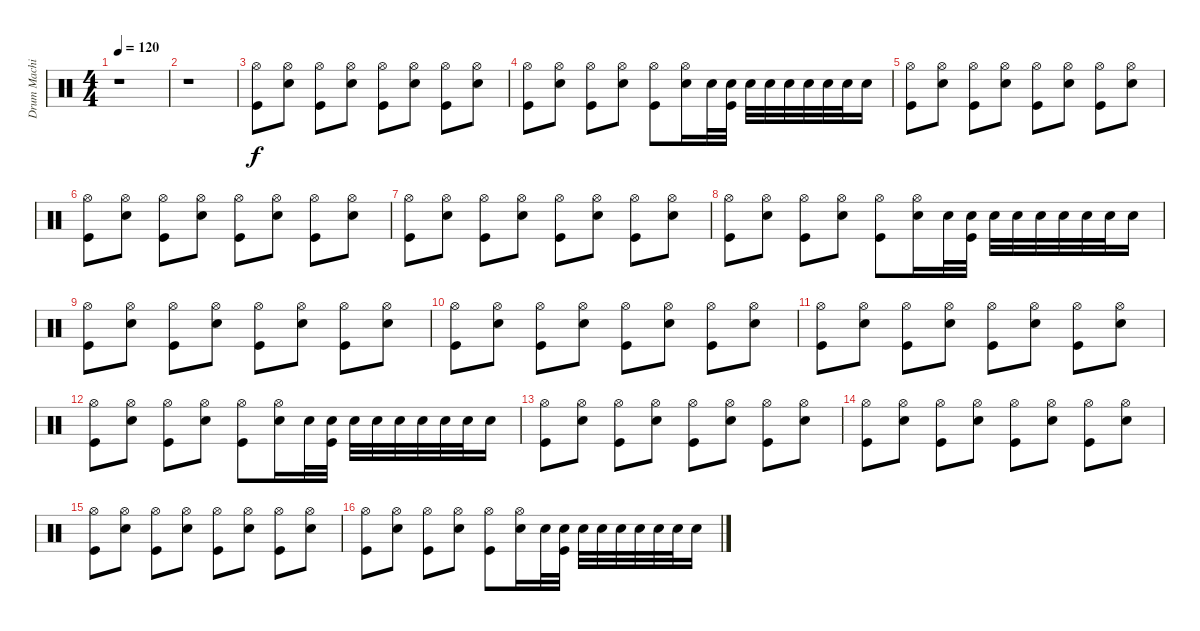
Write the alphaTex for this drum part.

\track ("Drum Machine" "Drum Machi") {instrument percussion}
\staff {score}
\articulation defaults
\ts (4 4)
\tempo 120
\clef neutral
\ks c
r.1{dy f} |
r.1 |
("Hi-Hat (open)" "Kick (hit)").8 ("Hi-Hat (open)" "Electric Snare (hit)").8 ("Hi-Hat (open)" "Kick (hit)").8 ("Hi-Hat (open)" "Electric Snare (hit)").8 ("Hi-Hat (open)" "Kick (hit)").8 ("Hi-Hat (open)" "Electric Snare (hit)").8 ("Hi-Hat (open)" "Kick (hit)").8 ("Hi-Hat (open)" "Electric Snare (hit)").8 |
("Hi-Hat (open)" "Kick (hit)").8 ("Hi-Hat (open)" "Electric Snare (hit)").8 ("Hi-Hat (open)" "Kick (hit)").8 ("Hi-Hat (open)" "Electric Snare (hit)").8 ("Hi-Hat (open)" "Kick (hit)").8 ("Hi-Hat (open)" "Electric Snare (hit)").16 "Electric Snare (hit)".32 ("Electric Snare (hit)" "Kick (hit)").32 "Electric Snare (hit)".32 "Electric Snare (hit)".32 "Electric Snare (hit)".32 "Electric Snare (hit)".32 "Electric Snare (hit)".32 "Electric Snare (hit)".32 "Electric Snare (hit)".16 |
("Hi-Hat (open)" "Kick (hit)").8 ("Hi-Hat (open)" "Electric Snare (hit)").8 ("Hi-Hat (open)" "Kick (hit)").8 ("Hi-Hat (open)" "Electric Snare (hit)").8 ("Hi-Hat (open)" "Kick (hit)").8 ("Hi-Hat (open)" "Electric Snare (hit)").8 ("Hi-Hat (open)" "Kick (hit)").8 ("Hi-Hat (open)" "Electric Snare (hit)").8 |
("Hi-Hat (open)" "Kick (hit)").8 ("Hi-Hat (open)" "Electric Snare (hit)").8 ("Hi-Hat (open)" "Kick (hit)").8 ("Hi-Hat (open)" "Electric Snare (hit)").8 ("Hi-Hat (open)" "Kick (hit)").8 ("Hi-Hat (open)" "Electric Snare (hit)").8 ("Hi-Hat (open)" "Kick (hit)").8 ("Hi-Hat (open)" "Electric Snare (hit)").8 |
("Hi-Hat (open)" "Kick (hit)").8 ("Hi-Hat (open)" "Electric Snare (hit)").8 ("Hi-Hat (open)" "Kick (hit)").8 ("Hi-Hat (open)" "Electric Snare (hit)").8 ("Hi-Hat (open)" "Kick (hit)").8 ("Hi-Hat (open)" "Electric Snare (hit)").8 ("Hi-Hat (open)" "Kick (hit)").8 ("Hi-Hat (open)" "Electric Snare (hit)").8 |
("Hi-Hat (open)" "Kick (hit)").8 ("Hi-Hat (open)" "Electric Snare (hit)").8 ("Hi-Hat (open)" "Kick (hit)").8 ("Hi-Hat (open)" "Electric Snare (hit)").8 ("Hi-Hat (open)" "Kick (hit)").8 ("Hi-Hat (open)" "Electric Snare (hit)").16 "Electric Snare (hit)".32 ("Electric Snare (hit)" "Kick (hit)").32 "Electric Snare (hit)".32 "Electric Snare (hit)".32 "Electric Snare (hit)".32 "Electric Snare (hit)".32 "Electric Snare (hit)".32 "Electric Snare (hit)".32 "Electric Snare (hit)".16 |
("Hi-Hat (open)" "Kick (hit)").8 ("Hi-Hat (open)" "Electric Snare (hit)").8 ("Hi-Hat (open)" "Kick (hit)").8 ("Hi-Hat (open)" "Electric Snare (hit)").8 ("Hi-Hat (open)" "Kick (hit)").8 ("Hi-Hat (open)" "Electric Snare (hit)").8 ("Hi-Hat (open)" "Kick (hit)").8 ("Hi-Hat (open)" "Electric Snare (hit)").8 |
("Hi-Hat (open)" "Kick (hit)").8 ("Hi-Hat (open)" "Electric Snare (hit)").8 ("Hi-Hat (open)" "Kick (hit)").8 ("Hi-Hat (open)" "Electric Snare (hit)").8 ("Hi-Hat (open)" "Kick (hit)").8 ("Hi-Hat (open)" "Electric Snare (hit)").8 ("Hi-Hat (open)" "Kick (hit)").8 ("Hi-Hat (open)" "Electric Snare (hit)").8 |
("Hi-Hat (open)" "Kick (hit)").8 ("Hi-Hat (open)" "Electric Snare (hit)").8 ("Hi-Hat (open)" "Kick (hit)").8 ("Hi-Hat (open)" "Electric Snare (hit)").8 ("Hi-Hat (open)" "Kick (hit)").8 ("Hi-Hat (open)" "Electric Snare (hit)").8 ("Hi-Hat (open)" "Kick (hit)").8 ("Hi-Hat (open)" "Electric Snare (hit)").8 |
("Hi-Hat (open)" "Kick (hit)").8 ("Hi-Hat (open)" "Electric Snare (hit)").8 ("Hi-Hat (open)" "Kick (hit)").8 ("Hi-Hat (open)" "Electric Snare (hit)").8 ("Hi-Hat (open)" "Kick (hit)").8 ("Hi-Hat (open)" "Electric Snare (hit)").16 "Electric Snare (hit)".32 ("Electric Snare (hit)" "Kick (hit)").32 "Electric Snare (hit)".32 "Electric Snare (hit)".32 "Electric Snare (hit)".32 "Electric Snare (hit)".32 "Electric Snare (hit)".32 "Electric Snare (hit)".32 "Electric Snare (hit)".16 |
("Hi-Hat (open)" "Kick (hit)").8 ("Hi-Hat (open)" "Electric Snare (hit)").8 ("Hi-Hat (open)" "Kick (hit)").8 ("Hi-Hat (open)" "Electric Snare (hit)").8 ("Hi-Hat (open)" "Kick (hit)").8 ("Hi-Hat (open)" "Electric Snare (hit)").8 ("Hi-Hat (open)" "Kick (hit)").8 ("Hi-Hat (open)" "Electric Snare (hit)").8 |
("Hi-Hat (open)" "Kick (hit)").8 ("Hi-Hat (open)" "Electric Snare (hit)").8 ("Hi-Hat (open)" "Kick (hit)").8 ("Hi-Hat (open)" "Electric Snare (hit)").8 ("Hi-Hat (open)" "Kick (hit)").8 ("Hi-Hat (open)" "Electric Snare (hit)").8 ("Hi-Hat (open)" "Kick (hit)").8 ("Hi-Hat (open)" "Electric Snare (hit)").8 |
("Hi-Hat (open)" "Kick (hit)").8 ("Hi-Hat (open)" "Electric Snare (hit)").8 ("Hi-Hat (open)" "Kick (hit)").8 ("Hi-Hat (open)" "Electric Snare (hit)").8 ("Hi-Hat (open)" "Kick (hit)").8 ("Hi-Hat (open)" "Electric Snare (hit)").8 ("Hi-Hat (open)" "Kick (hit)").8 ("Hi-Hat (open)" "Electric Snare (hit)").8 |
("Hi-Hat (open)" "Kick (hit)").8 ("Hi-Hat (open)" "Electric Snare (hit)").8 ("Hi-Hat (open)" "Kick (hit)").8 ("Hi-Hat (open)" "Electric Snare (hit)").8 ("Hi-Hat (open)" "Kick (hit)").8 ("Hi-Hat (open)" "Electric Snare (hit)").16 "Electric Snare (hit)".32 ("Electric Snare (hit)" "Kick (hit)").32 "Electric Snare (hit)".32 "Electric Snare (hit)".32 "Electric Snare (hit)".32 "Electric Snare (hit)".32 "Electric Snare (hit)".32 "Electric Snare (hit)".32 "Electric Snare (hit)".16
